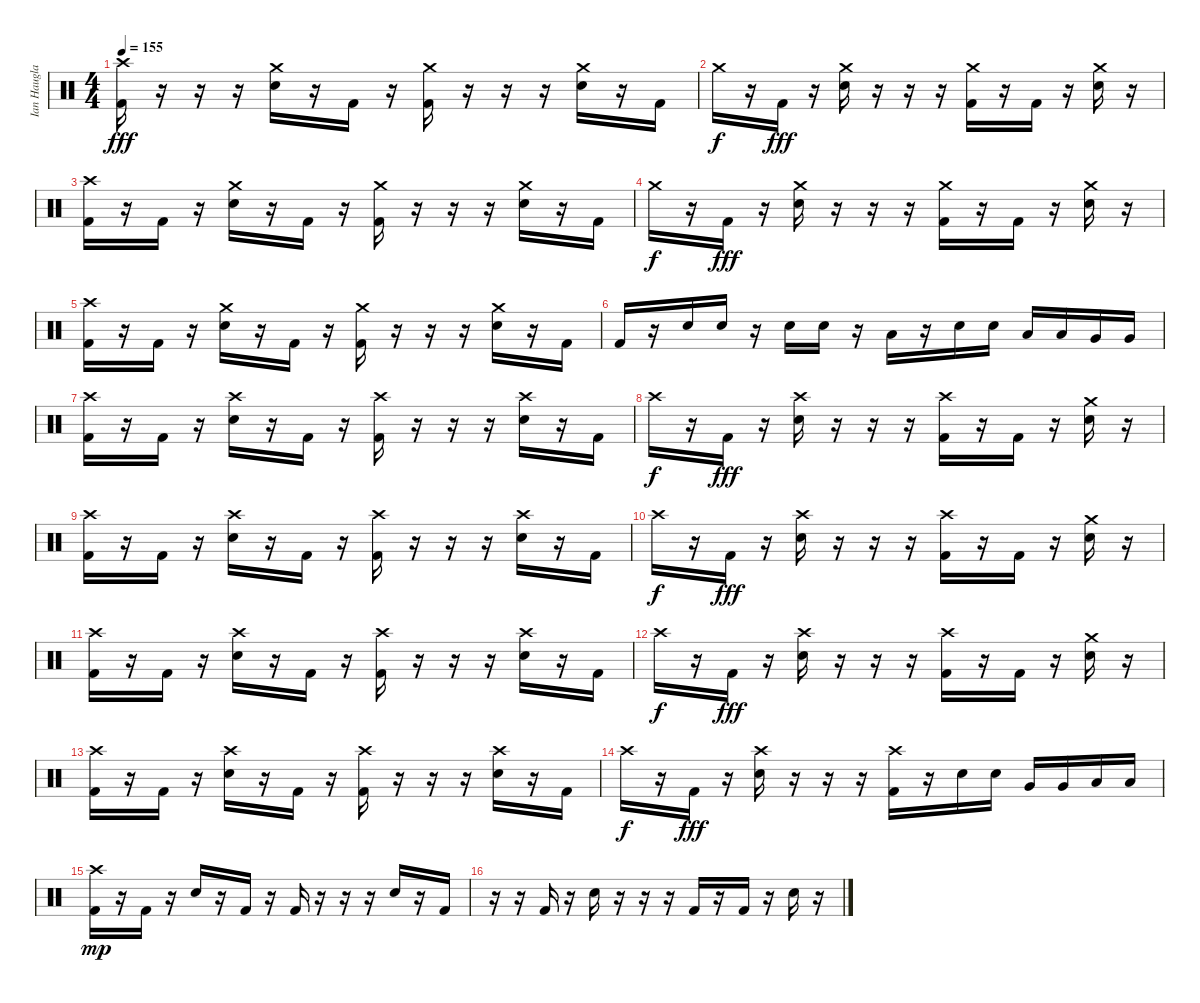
\track ("Ian Haugland" "Ian Haugla") {instrument percussion}
\staff {score}
\articulation defaults
\ts (4 4)
\tempo 155
\clef neutral
\ks c
("Crash high (hit)" "Kick (hit) 2").16{dy fff} r.16 r.16 r.16 ("Crash medium (hit)" "Electric Snare (hit)").16 r.16 "Kick (hit) 2".16 r.16 ("Crash medium (hit)" "Kick (hit) 2").16 r.16 r.16 r.16 ("Crash medium (hit)" "Electric Snare (hit)").16 r.16 "Kick (hit) 2".16 |
"Crash medium (hit)".16{dy f} r.16 "Kick (hit) 2".16{dy fff} r.16 ("Crash medium (hit)" "Electric Snare (hit)").16 r.16 r.16 r.16 ("Crash medium (hit)" "Kick (hit) 2").16 r.16 "Kick (hit) 2".16 r.16 ("Crash medium (hit)" "Electric Snare (hit)").16 r.16 |
("Crash high (hit)" "Kick (hit) 2").16 r.16 "Kick (hit) 2".16 r.16 ("Crash medium (hit)" "Electric Snare (hit)").16 r.16 "Kick (hit) 2".16 r.16 ("Crash medium (hit)" "Kick (hit) 2").16 r.16 r.16 r.16 ("Crash medium (hit)" "Electric Snare (hit)").16 r.16 "Kick (hit) 2".16 |
"Crash medium (hit)".16{dy f} r.16 "Kick (hit) 2".16{dy fff} r.16 ("Crash medium (hit)" "Electric Snare (hit)").16 r.16 r.16 r.16 ("Crash medium (hit)" "Kick (hit) 2").16 r.16 "Kick (hit) 2".16 r.16 ("Crash medium (hit)" "Electric Snare (hit)").16 r.16 |
("Crash high (hit)" "Kick (hit) 2").16 r.16 "Kick (hit) 2".16 r.16 ("Crash medium (hit)" "Electric Snare (hit)").16 r.16 "Kick (hit) 2".16 r.16 ("Crash medium (hit)" "Kick (hit) 2").16 r.16 r.16 r.16 ("Crash medium (hit)" "Electric Snare (hit)").16 r.16 "Kick (hit) 2".16 |
"Kick (hit) 2".16 r.16 "Electric Snare (hit)".16 "Electric Snare (hit)".16 r.16 "Electric Snare (hit)".16 "Electric Snare (hit)".16 r.16 "Low Tom (hit)".16 r.16 "Electric Snare (hit)".16 "Electric Snare (hit)".16 "Low Tom (hit)".16 "Low Tom (hit)".16 "Very Low Tom (hit)".16 "Very Low Tom (hit)".16 |
("Crash high (hit)" "Kick (hit) 2").16 r.16 "Kick (hit) 2".16 r.16 ("Crash high (hit)" "Electric Snare (hit)").16 r.16 "Kick (hit) 2".16 r.16 ("Crash high (hit)" "Kick (hit) 2").16 r.16 r.16 r.16 ("Crash high (hit)" "Electric Snare (hit)").16 r.16 "Kick (hit) 2".16 |
"Crash high (hit)".16{dy f} r.16 "Kick (hit) 2".16{dy fff} r.16 ("Crash high (hit)" "Electric Snare (hit)").16 r.16 r.16 r.16 ("Crash high (hit)" "Kick (hit) 2").16 r.16 "Kick (hit) 2".16 r.16 ("Crash medium (hit)" "Electric Snare (hit)").16 r.16 |
("Crash high (hit)" "Kick (hit) 2").16 r.16 "Kick (hit) 2".16 r.16 ("Crash high (hit)" "Electric Snare (hit)").16 r.16 "Kick (hit) 2".16 r.16 ("Crash high (hit)" "Kick (hit) 2").16 r.16 r.16 r.16 ("Crash high (hit)" "Electric Snare (hit)").16 r.16 "Kick (hit) 2".16 |
"Crash high (hit)".16{dy f} r.16 "Kick (hit) 2".16{dy fff} r.16 ("Crash high (hit)" "Electric Snare (hit)").16 r.16 r.16 r.16 ("Crash high (hit)" "Kick (hit) 2").16 r.16 "Kick (hit) 2".16 r.16 ("Crash medium (hit)" "Electric Snare (hit)").16 r.16 |
("Crash high (hit)" "Kick (hit) 2").16 r.16 "Kick (hit) 2".16 r.16 ("Crash high (hit)" "Electric Snare (hit)").16 r.16 "Kick (hit) 2".16 r.16 ("Crash high (hit)" "Kick (hit) 2").16 r.16 r.16 r.16 ("Crash high (hit)" "Electric Snare (hit)").16 r.16 "Kick (hit) 2".16 |
"Crash high (hit)".16{dy f} r.16 "Kick (hit) 2".16{dy fff} r.16 ("Crash high (hit)" "Electric Snare (hit)").16 r.16 r.16 r.16 ("Crash high (hit)" "Kick (hit) 2").16 r.16 "Kick (hit) 2".16 r.16 ("Crash medium (hit)" "Electric Snare (hit)").16 r.16 |
("Crash high (hit)" "Kick (hit) 2").16 r.16 "Kick (hit) 2".16 r.16 ("Crash high (hit)" "Electric Snare (hit)").16 r.16 "Kick (hit) 2".16 r.16 ("Crash high (hit)" "Kick (hit) 2").16 r.16 r.16 r.16 ("Crash high (hit)" "Electric Snare (hit)").16 r.16 "Kick (hit) 2".16 |
"Crash high (hit)".16{dy f} r.16 "Kick (hit) 2".16{dy fff} r.16 ("Crash high (hit)" "Electric Snare (hit)").16 r.16 r.16 r.16 ("Crash high (hit)" "Kick (hit) 2").16 r.16 "Electric Snare (hit)".16 "Electric Snare (hit)".16 "Very Low Tom (hit)".16 "Very Low Tom (hit)".16 "Low Floor Tom (hit)".16 "Low Floor Tom (hit)".16 |
("Crash high (hit)" "Kick (hit) 2").16{dy mp} r.16 "Kick (hit) 2".16 r.16 "Electric Snare (hit)".16 r.16 "Kick (hit) 2".16 r.16 "Kick (hit) 2".16 r.16 r.16 r.16 "Electric Snare (hit)".16 r.16 "Kick (hit) 2".16 |
r.16 r.16 "Kick (hit) 2".16 r.16 "Electric Snare (hit)".16 r.16 r.16 r.16 "Kick (hit) 2".16 r.16 "Kick (hit) 2".16 r.16 "Electric Snare (hit)".16 r.16
